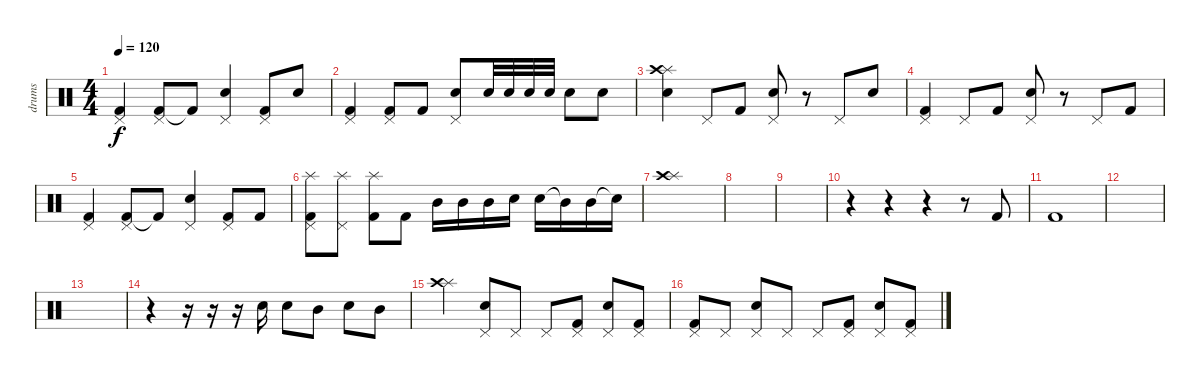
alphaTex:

\track ("drums" "drums") {instrument percussion}
\staff {score}
\articulation defaults
\ts (4 4)
\tempo 120
\clef neutral
\ks c
("Kick (hit) 2" "Pedal Hi-Hat (hit)").4{dy f} ("Kick (hit) 2" "Pedal Hi-Hat (hit)").8 "Kick (hit) 2"{t}.8 ("Snare (hit) 2" "Pedal Hi-Hat (hit)").4 ("Kick (hit) 2" "Pedal Hi-Hat (hit)").8 "Snare (hit) 2".8 |
("Kick (hit) 2" "Pedal Hi-Hat (hit)").4 ("Kick (hit) 2" "Pedal Hi-Hat (hit)").8 "Kick (hit) 2".8 ("Snare (hit) 2" "Pedal Hi-Hat (hit)").8 "Snare (hit) 2".32{volume 7} "Snare (hit) 2".32 "Snare (hit) 2".32 "Snare (hit) 2".32 "Electric Snare (hit)".8{volume 16} "Electric Snare (hit)".8 |
("Splash (hit)" "Crash high (hit)" "Snare (hit) 2").4 "Pedal Hi-Hat (hit)".8 "Kick (hit) 2".8 ("Snare (hit) 2" "Pedal Hi-Hat (hit)").8 r.8 "Pedal Hi-Hat (hit)".8 "Snare (hit) 2".8 |
("Kick (hit) 2" "Pedal Hi-Hat (hit)").4 "Pedal Hi-Hat (hit)".8 "Kick (hit) 2".8 ("Snare (hit) 2" "Pedal Hi-Hat (hit)").8 r.8 "Pedal Hi-Hat (hit)".8 "Kick (hit) 2".8 |
("Kick (hit) 2" "Pedal Hi-Hat (hit)").4 ("Kick (hit) 2" "Pedal Hi-Hat (hit)").8 "Kick (hit) 2"{t}.8 ("Snare (hit) 2" "Pedal Hi-Hat (hit)").4 ("Kick (hit) 2" "Pedal Hi-Hat (hit)").8 "Kick (hit) 2".8 |
("Splash (hit)" "Kick (hit) 2" "Pedal Hi-Hat (hit)").8 ("Splash (hit)" "Pedal Hi-Hat (hit)").8 ("Splash (hit)" "Kick (hit) 2").8 "Kick (hit) 2".8 "Mid Tom (hit)".16 "Mid Tom (hit)".16 "Mid Tom (hit)".16 "Electric Snare (hit)".16 "Electric Snare (hit)".16 "Mid Tom (hit)"{t}.16 "Mid Tom (hit)".16 "Snare (hit)"{t}.16 |
("Splash (hit)" "Crash high (hit)").1 |
|
|
r.4 r.4 r.4 r.8 "Kick (hit) 2".8 |
"Kick (hit) 2".1 |
|
|
r.4 r.16 r.16 r.16 "Snare (hit) 2".16 "Snare (hit) 2".8 "Mid Tom (hit)".8 "Snare (hit) 2".8 "Mid Tom (hit)".8 |
("Splash (hit)" "Crash high (hit)").4 ("Snare (hit) 2" "Pedal Hi-Hat (hit)").8 "Pedal Hi-Hat (hit)".8 "Pedal Hi-Hat (hit)".8 ("Kick (hit) 2" "Pedal Hi-Hat (hit)").8 ("Snare (hit) 2" "Pedal Hi-Hat (hit)").8 ("Kick (hit) 2" "Pedal Hi-Hat (hit)").8 |
("Kick (hit) 2" "Pedal Hi-Hat (hit)").8 "Pedal Hi-Hat (hit)".8 ("Snare (hit) 2" "Pedal Hi-Hat (hit)").8 "Pedal Hi-Hat (hit)".8 "Pedal Hi-Hat (hit)".8 ("Kick (hit) 2" "Pedal Hi-Hat (hit)").8 ("Snare (hit) 2" "Pedal Hi-Hat (hit)").8 ("Kick (hit) 2" "Pedal Hi-Hat (hit)").8
